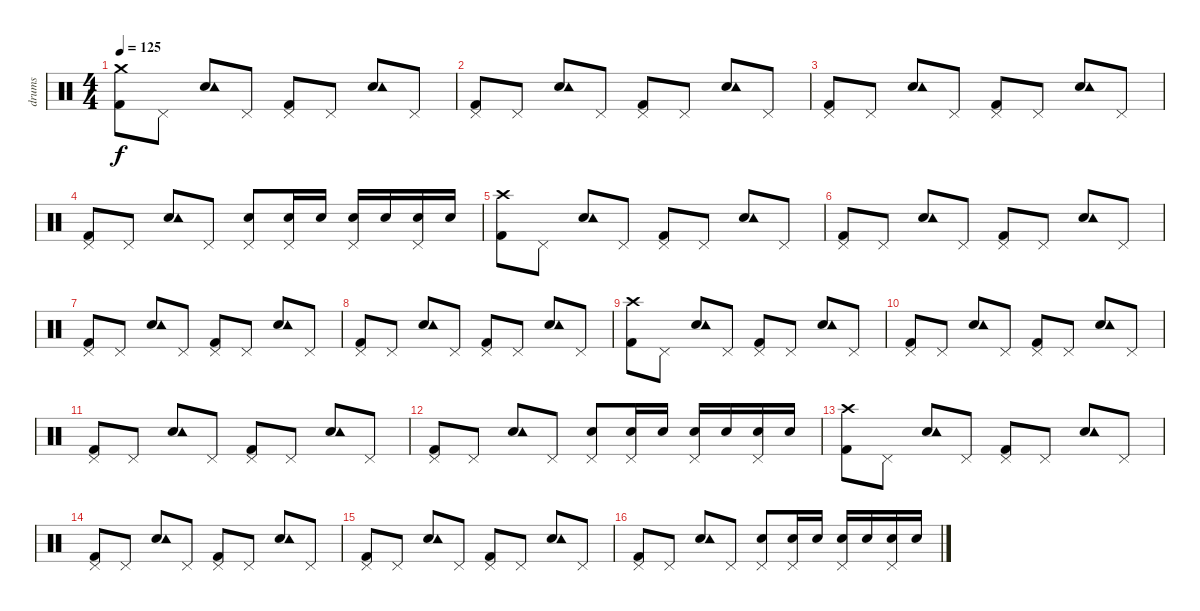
\track ("drums" "drums") {instrument percussion}
\staff {score}
\articulation defaults
\ts (4 4)
\tempo 125
\clef neutral
\ks c
("Kick (hit) 2" "Crash medium (hit)").8{dy f} "Pedal Hi-Hat (hit)".8 ("Electric Snare (hit)" "Tambourine (hit)").8 "Pedal Hi-Hat (hit)".8 ("Kick (hit) 2" "Pedal Hi-Hat (hit)").8 "Pedal Hi-Hat (hit)".8 ("Electric Snare (hit)" "Tambourine (hit)").8 "Pedal Hi-Hat (hit)".8 |
("Kick (hit) 2" "Pedal Hi-Hat (hit)").8 "Pedal Hi-Hat (hit)".8 ("Electric Snare (hit)" "Tambourine (hit)").8 "Pedal Hi-Hat (hit)".8 ("Kick (hit) 2" "Pedal Hi-Hat (hit)").8 "Pedal Hi-Hat (hit)".8 ("Electric Snare (hit)" "Tambourine (hit)").8 "Pedal Hi-Hat (hit)".8 |
("Kick (hit) 2" "Pedal Hi-Hat (hit)").8 "Pedal Hi-Hat (hit)".8 ("Electric Snare (hit)" "Tambourine (hit)").8 "Pedal Hi-Hat (hit)".8 ("Kick (hit) 2" "Pedal Hi-Hat (hit)").8 "Pedal Hi-Hat (hit)".8 ("Electric Snare (hit)" "Tambourine (hit)").8 "Pedal Hi-Hat (hit)".8 |
("Kick (hit) 2" "Pedal Hi-Hat (hit)").8 "Pedal Hi-Hat (hit)".8 ("Electric Snare (hit)" "Tambourine (hit)").8 "Pedal Hi-Hat (hit)".8 ("Electric Snare (hit)" "Pedal Hi-Hat (hit)").8 ("Electric Snare (hit)" "Pedal Hi-Hat (hit)").16 "Electric Snare (hit)".16 ("Electric Snare (hit)" "Pedal Hi-Hat (hit)").16 "Electric Snare (hit)".16 ("Electric Snare (hit)" "Pedal Hi-Hat (hit)").16 "Electric Snare (hit)".16 |
("Kick (hit) 2" "Crash high (hit)").8 "Pedal Hi-Hat (hit)".8 ("Electric Snare (hit)" "Tambourine (hit)").8 "Pedal Hi-Hat (hit)".8 ("Kick (hit) 2" "Pedal Hi-Hat (hit)").8 "Pedal Hi-Hat (hit)".8 ("Electric Snare (hit)" "Tambourine (hit)").8 "Pedal Hi-Hat (hit)".8 |
("Kick (hit) 2" "Pedal Hi-Hat (hit)").8 "Pedal Hi-Hat (hit)".8 ("Electric Snare (hit)" "Tambourine (hit)").8 "Pedal Hi-Hat (hit)".8 ("Kick (hit) 2" "Pedal Hi-Hat (hit)").8 "Pedal Hi-Hat (hit)".8 ("Electric Snare (hit)" "Tambourine (hit)").8 "Pedal Hi-Hat (hit)".8 |
("Kick (hit) 2" "Pedal Hi-Hat (hit)").8 "Pedal Hi-Hat (hit)".8 ("Electric Snare (hit)" "Tambourine (hit)").8 "Pedal Hi-Hat (hit)".8 ("Kick (hit) 2" "Pedal Hi-Hat (hit)").8 "Pedal Hi-Hat (hit)".8 ("Electric Snare (hit)" "Tambourine (hit)").8 "Pedal Hi-Hat (hit)".8 |
("Kick (hit) 2" "Pedal Hi-Hat (hit)").8 "Pedal Hi-Hat (hit)".8 ("Electric Snare (hit)" "Tambourine (hit)").8 "Pedal Hi-Hat (hit)".8 ("Kick (hit) 2" "Pedal Hi-Hat (hit)").8 "Pedal Hi-Hat (hit)".8 ("Electric Snare (hit)" "Tambourine (hit)").8 "Pedal Hi-Hat (hit)".8 |
("Kick (hit) 2" "Crash high (hit)").8 "Pedal Hi-Hat (hit)".8 ("Electric Snare (hit)" "Tambourine (hit)").8 "Pedal Hi-Hat (hit)".8 ("Kick (hit) 2" "Pedal Hi-Hat (hit)").8 "Pedal Hi-Hat (hit)".8 ("Electric Snare (hit)" "Tambourine (hit)").8 "Pedal Hi-Hat (hit)".8 |
("Kick (hit) 2" "Pedal Hi-Hat (hit)").8 "Pedal Hi-Hat (hit)".8 ("Electric Snare (hit)" "Tambourine (hit)").8 "Pedal Hi-Hat (hit)".8 ("Kick (hit) 2" "Pedal Hi-Hat (hit)").8 "Pedal Hi-Hat (hit)".8 ("Electric Snare (hit)" "Tambourine (hit)").8 "Pedal Hi-Hat (hit)".8 |
("Kick (hit) 2" "Pedal Hi-Hat (hit)").8 "Pedal Hi-Hat (hit)".8 ("Electric Snare (hit)" "Tambourine (hit)").8 "Pedal Hi-Hat (hit)".8 ("Kick (hit) 2" "Pedal Hi-Hat (hit)").8 "Pedal Hi-Hat (hit)".8 ("Electric Snare (hit)" "Tambourine (hit)").8 "Pedal Hi-Hat (hit)".8 |
("Kick (hit) 2" "Pedal Hi-Hat (hit)").8 "Pedal Hi-Hat (hit)".8 ("Electric Snare (hit)" "Tambourine (hit)").8 "Pedal Hi-Hat (hit)".8 ("Electric Snare (hit)" "Pedal Hi-Hat (hit)").8 ("Electric Snare (hit)" "Pedal Hi-Hat (hit)").16 "Electric Snare (hit)".16 ("Electric Snare (hit)" "Pedal Hi-Hat (hit)").16 "Electric Snare (hit)".16 ("Electric Snare (hit)" "Pedal Hi-Hat (hit)").16 "Electric Snare (hit)".16 |
("Kick (hit) 2" "Crash high (hit)").8 "Pedal Hi-Hat (hit)".8 ("Electric Snare (hit)" "Tambourine (hit)").8 "Pedal Hi-Hat (hit)".8 ("Kick (hit) 2" "Pedal Hi-Hat (hit)").8 "Pedal Hi-Hat (hit)".8 ("Electric Snare (hit)" "Tambourine (hit)").8 "Pedal Hi-Hat (hit)".8 |
("Kick (hit) 2" "Pedal Hi-Hat (hit)").8 "Pedal Hi-Hat (hit)".8 ("Electric Snare (hit)" "Tambourine (hit)").8 "Pedal Hi-Hat (hit)".8 ("Kick (hit) 2" "Pedal Hi-Hat (hit)").8 "Pedal Hi-Hat (hit)".8 ("Electric Snare (hit)" "Tambourine (hit)").8 "Pedal Hi-Hat (hit)".8 |
("Kick (hit) 2" "Pedal Hi-Hat (hit)").8 "Pedal Hi-Hat (hit)".8 ("Electric Snare (hit)" "Tambourine (hit)").8 "Pedal Hi-Hat (hit)".8 ("Kick (hit) 2" "Pedal Hi-Hat (hit)").8 "Pedal Hi-Hat (hit)".8 ("Electric Snare (hit)" "Tambourine (hit)").8 "Pedal Hi-Hat (hit)".8 |
("Kick (hit) 2" "Pedal Hi-Hat (hit)").8 "Pedal Hi-Hat (hit)".8 ("Electric Snare (hit)" "Tambourine (hit)").8 "Pedal Hi-Hat (hit)".8 ("Electric Snare (hit)" "Pedal Hi-Hat (hit)").8 ("Electric Snare (hit)" "Pedal Hi-Hat (hit)").16 "Electric Snare (hit)".16 ("Electric Snare (hit)" "Pedal Hi-Hat (hit)").16 "Electric Snare (hit)".16 ("Electric Snare (hit)" "Pedal Hi-Hat (hit)").16 "Electric Snare (hit)".16
